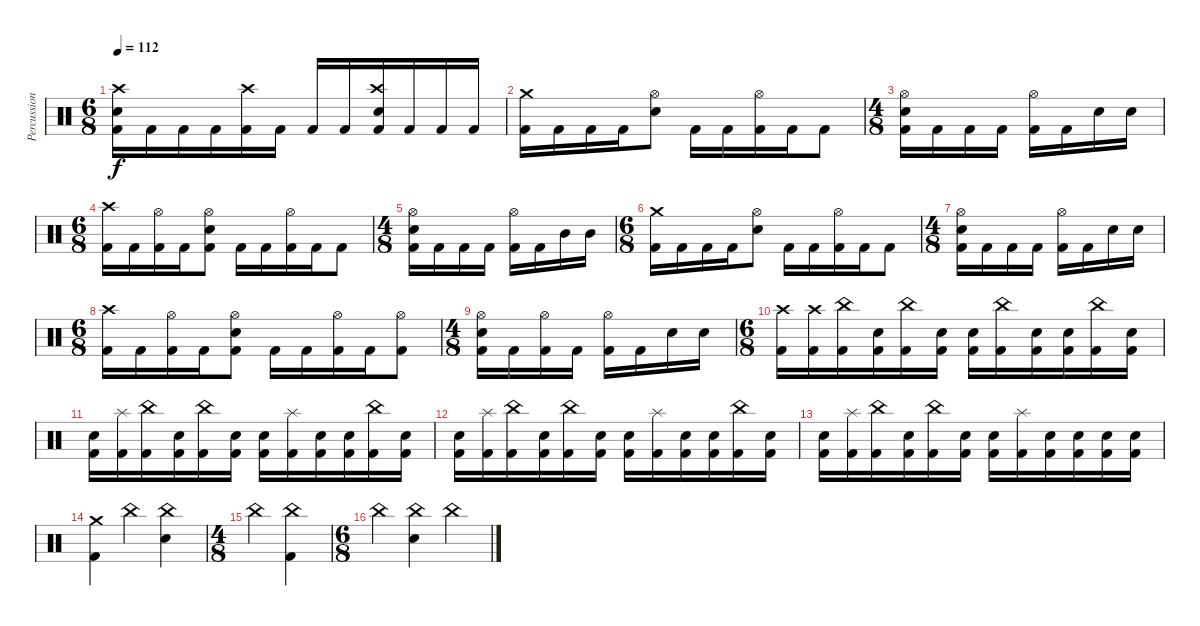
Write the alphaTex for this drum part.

\track ("Percussion" "Percussion") {instrument percussion}
\staff {score}
\articulation defaults
\ts (6 8)
\tempo 112
\clef neutral
\ks c
("Kick (hit) 2" "Crash high (hit)" "Electric Snare (hit)").16{dy f} "Kick (hit) 2".16 "Kick (hit) 2".16 "Kick (hit) 2".16 ("Kick (hit) 2" "Crash high (hit)").16 "Kick (hit) 2".16 "Kick (hit) 2".16 "Kick (hit) 2".16 ("Kick (hit) 2" "Crash high (hit)" "Electric Snare (hit)").16 "Kick (hit) 2".16 "Kick (hit) 2".16 "Kick (hit) 2".16 |
("Kick (hit) 2" "Crash medium (hit)").16 "Kick (hit) 2".16 "Kick (hit) 2".16 "Kick (hit) 2".16 ("Hi-Hat (open)" "Electric Snare (hit)").8 "Kick (hit) 2".16 "Kick (hit) 2".16 ("Hi-Hat (open)" "Kick (hit) 2").16 "Kick (hit) 2".16 "Kick (hit) 2".8 |
\ts (4 8)
("Hi-Hat (open)" "Electric Snare (hit)" "Kick (hit) 2").16 "Kick (hit) 2".16 "Kick (hit) 2".16 "Kick (hit) 2".16 ("Kick (hit) 2" "Hi-Hat (open)").16 "Kick (hit) 2".16 "Electric Snare (hit)".16 "Electric Snare (hit)".16 |
\ts (6 8)
("Kick (hit) 2" "Crash high (hit)").16 "Kick (hit) 2".16 ("Kick (hit) 2" "Hi-Hat (open)").16 "Kick (hit) 2".16 ("Kick (hit) 2" "Hi-Hat (open)" "Electric Snare (hit)").8 "Kick (hit) 2".16 "Kick (hit) 2".16 ("Hi-Hat (open)" "Kick (hit) 2").16 "Kick (hit) 2".16 "Kick (hit) 2".8 |
\ts (4 8)
("Hi-Hat (open)" "Electric Snare (hit)" "Kick (hit) 2").16 "Kick (hit) 2".16 "Kick (hit) 2".16 "Kick (hit) 2".16 ("Kick (hit) 2" "Hi-Hat (open)").16 "Kick (hit) 2".16 "Mid Tom (hit)".16 "Mid Tom (hit)".16 |
\ts (6 8)
("Kick (hit) 2" "Crash medium (hit)").16 "Kick (hit) 2".16 "Kick (hit) 2".16 "Kick (hit) 2".16 ("Hi-Hat (open)" "Electric Snare (hit)").8 "Kick (hit) 2".16 "Kick (hit) 2".16 ("Hi-Hat (open)" "Kick (hit) 2").16 "Kick (hit) 2".16 "Kick (hit) 2".8 |
\ts (4 8)
("Hi-Hat (open)" "Electric Snare (hit)" "Kick (hit) 2").16 "Kick (hit) 2".16 "Kick (hit) 2".16 "Kick (hit) 2".16 ("Kick (hit) 2" "Hi-Hat (open)").16 "Kick (hit) 2".16 "Electric Snare (hit)".16 "Electric Snare (hit)".16 |
\ts (6 8)
("Kick (hit) 2" "Crash high (hit)").16 "Kick (hit) 2".16 ("Kick (hit) 2" "Hi-Hat (open)").16 "Kick (hit) 2".16 ("Kick (hit) 2" "Hi-Hat (open)" "Electric Snare (hit)").8 "Kick (hit) 2".16 "Kick (hit) 2".16 ("Hi-Hat (open)" "Kick (hit) 2").16 "Kick (hit) 2".16 ("Kick (hit) 2" "Hi-Hat (open)").8 |
\ts (4 8)
("Hi-Hat (open)" "Electric Snare (hit)" "Kick (hit) 2").16 "Kick (hit) 2".16 ("Kick (hit) 2" "Hi-Hat (open)").16 "Kick (hit) 2".16 ("Kick (hit) 2" "Hi-Hat (open)").16 "Kick (hit) 2".16 "Electric Snare (hit)".16 "Electric Snare (hit)".16 |
\ts (6 8)
("Crash high (hit)" "Kick (hit) 2").16 ("Kick (hit) 2" "Crash high (hit)").16 ("Kick (hit) 2" "China (hit)").16 ("Kick (hit) 2" "Electric Snare (hit)").16 ("Kick (hit) 2" "China (hit)").16 ("Kick (hit) 2" "Electric Snare (hit)").16 ("Kick (hit) 2" "Electric Snare (hit)").16 ("Kick (hit) 2" "China (hit)").16 ("Kick (hit) 2" "Electric Snare (hit)").16 ("Kick (hit) 2" "Electric Snare (hit)").16 ("Kick (hit) 2" "China (hit)").16 ("Kick (hit) 2" "Electric Snare (hit)").16 |
("Kick (hit) 2" "Electric Snare (hit)").16 ("Kick (hit) 2" "Splash (hit)").16 ("Kick (hit) 2" "China (hit)").16 ("Kick (hit) 2" "Electric Snare (hit)").16 ("Kick (hit) 2" "China (hit)").16 ("Kick (hit) 2" "Electric Snare (hit)").16 ("Kick (hit) 2" "Electric Snare (hit)").16 ("Kick (hit) 2" "Splash (hit)").16 ("Kick (hit) 2" "Electric Snare (hit)").16 ("Kick (hit) 2" "Electric Snare (hit)").16 ("Kick (hit) 2" "China (hit)").16 ("Kick (hit) 2" "Electric Snare (hit)").16 |
("Kick (hit) 2" "Electric Snare (hit)").16 ("Kick (hit) 2" "Splash (hit)").16 ("Kick (hit) 2" "China (hit)").16 ("Kick (hit) 2" "Electric Snare (hit)").16 ("Kick (hit) 2" "China (hit)").16 ("Kick (hit) 2" "Electric Snare (hit)").16 ("Kick (hit) 2" "Electric Snare (hit)").16 ("Kick (hit) 2" "Splash (hit)").16 ("Kick (hit) 2" "Electric Snare (hit)").16 ("Kick (hit) 2" "Electric Snare (hit)").16 ("Kick (hit) 2" "China (hit)").16 ("Kick (hit) 2" "Electric Snare (hit)").16 |
("Kick (hit) 2" "Electric Snare (hit)").16 ("Kick (hit) 2" "Splash (hit)").16 ("Kick (hit) 2" "China (hit)").16 ("Kick (hit) 2" "Electric Snare (hit)").16 ("Kick (hit) 2" "China (hit)").16 ("Kick (hit) 2" "Electric Snare (hit)").16 ("Kick (hit) 2" "Electric Snare (hit)").16 ("Kick (hit) 2" "Splash (hit)").16 ("Kick (hit) 2" "Electric Snare (hit)").16 ("Kick (hit) 2" "Electric Snare (hit)").16 ("Kick (hit) 2" "Electric Snare (hit)").16 ("Kick (hit) 2" "Electric Snare (hit)").16 |
("Crash medium (hit)" "Kick (hit) 2").4 "China (hit)".4 ("China (hit)" "Electric Snare (hit)").4 |
\ts (4 8)
"China (hit)".4 ("China (hit)" "Kick (hit) 2").4 |
\ts (6 8)
"China (hit)".4 ("China (hit)" "Electric Snare (hit)").4 "China (hit)".4
